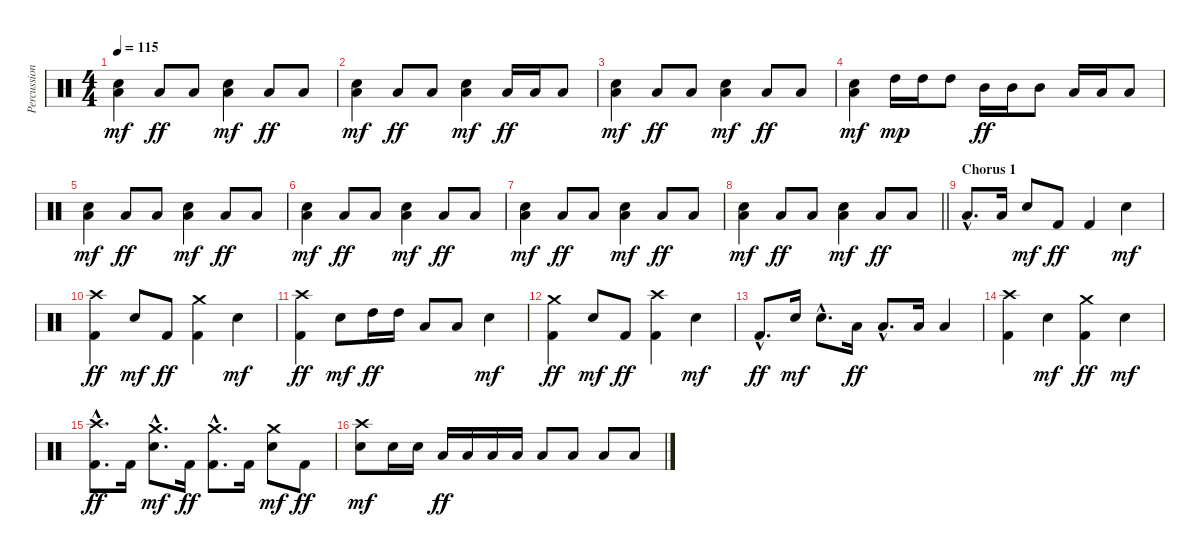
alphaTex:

\track ("Percussion" "Percussion") {instrument percussion}
\staff {score}
\articulation defaults
\ts (4 4)
\tempo 115
\clef neutral
\ks c
("Low Floor Tom (hit)" "Snare (hit) 2").4{dy mf} "Low Floor Tom (hit)".8{dy ff} "Low Floor Tom (hit)".8 ("Low Floor Tom (hit)" "Snare (hit) 2").4{dy mf} "Low Floor Tom (hit)".8{dy ff} "Low Floor Tom (hit)".8 |
("Low Floor Tom (hit)" "Snare (hit) 2").4{dy mf} "Low Floor Tom (hit)".8{dy ff} "Low Floor Tom (hit)".8 ("Low Floor Tom (hit)" "Snare (hit) 2").4{dy mf} "Low Tom (hit)".16{dy ff} "Low Tom (hit)".16 "Low Tom (hit)".8 |
("Low Floor Tom (hit)" "Snare (hit) 2").4{dy mf} "Low Floor Tom (hit)".8{dy ff} "Low Floor Tom (hit)".8 ("Low Floor Tom (hit)" "Snare (hit) 2").4{dy mf} "Low Floor Tom (hit)".8{dy ff} "Low Floor Tom (hit)".8 |
("Low Floor Tom (hit)" "Snare (hit) 2").4{dy mf} "High Tom (hit)".16{dy mp} "High Tom (hit)".16 "High Tom (hit)".8 "Mid Tom (hit)".16{dy ff} "Mid Tom (hit)".16 "Mid Tom (hit)".8 "Low Tom (hit)".16 "Low Tom (hit)".16 "Low Tom (hit)".8 |
("Low Floor Tom (hit)" "Snare (hit) 2").4{dy mf} "Low Floor Tom (hit)".8{dy ff} "Low Floor Tom (hit)".8 ("Low Floor Tom (hit)" "Snare (hit) 2").4{dy mf} "Low Floor Tom (hit)".8{dy ff} "Low Floor Tom (hit)".8 |
("Low Floor Tom (hit)" "Snare (hit) 2").4{dy mf} "Low Floor Tom (hit)".8{dy ff} "Low Floor Tom (hit)".8 ("Low Floor Tom (hit)" "Snare (hit) 2").4{dy mf} "Low Floor Tom (hit)".8{dy ff} "Low Floor Tom (hit)".8 |
("Low Floor Tom (hit)" "Snare (hit) 2").4{dy mf} "Low Floor Tom (hit)".8{dy ff} "Low Floor Tom (hit)".8 ("Low Floor Tom (hit)" "Snare (hit) 2").4{dy mf} "Low Floor Tom (hit)".8{dy ff} "Low Floor Tom (hit)".8 |
\barLineRight lightlight
("Low Floor Tom (hit)" "Snare (hit) 2").4{dy mf} "Low Floor Tom (hit)".8{dy ff} "Low Floor Tom (hit)".8 ("Low Floor Tom (hit)" "Snare (hit) 2").4{dy mf} "Low Floor Tom (hit)".8{dy ff} "Low Floor Tom (hit)".8 |
\section ("" "Chorus 1")
"Low Floor Tom (hit)"{hac}.8{d} "Low Floor Tom (hit)".16 "Snare (hit) 2".8{dy mf} "Kick (hit) 2".8{dy ff} "Kick (hit) 2".4 "Snare (hit) 2".4{dy mf} |
("Crash high (hit)" "Kick (hit) 2").4{dy ff} "Snare (hit) 2".8{dy mf} "Kick (hit) 2".8{dy ff} ("Crash medium (hit)" "Kick (hit) 2").4 "Snare (hit) 2".4{dy mf} |
("Crash high (hit)" "Kick (hit) 2").4{dy ff} "Snare (hit) 2".8{dy mf} "High Tom (hit)".16{dy ff} "High Tom (hit)".16 "Low Floor Tom (hit)".8 "Low Floor Tom (hit)".8 "Snare (hit) 2".4{dy mf} |
("Crash medium (hit)" "Kick (hit) 2").4{dy ff} "Snare (hit) 2".8{dy mf} "Kick (hit) 2".8{dy ff} ("Crash high (hit)" "Kick (hit) 2").4 "Snare (hit) 2".4{dy mf} |
"Kick (hit) 2"{hac}.8{d dy ff} "Snare (hit) 2".16{dy mf} "Snare (hit) 2"{hac}.8{d} "Low Tom (hit)".16{dy ff} "Low Tom (hit)"{hac}.8{d} "Low Floor Tom (hit)".16 "Low Floor Tom (hit)".4 |
("Crash high (hit)" "Kick (hit) 2").4 "Snare (hit) 2".4{dy mf} ("Crash medium (hit)" "Kick (hit) 2").4{dy ff} "Snare (hit) 2".4{dy mf} |
("Crash high (hit)"{hac} "Kick (hit) 2"{hac}).8{d dy ff} "Kick (hit) 2".16 ("Crash medium (hit)"{hac} "Snare (hit) 2"{hac}).8{d dy mf} "Kick (hit) 2".16{dy ff} ("Crash medium (hit)"{hac} "Kick (hit) 2"{hac}).8{d} "Kick (hit) 2".16 ("Crash medium (hit)" "Snare (hit) 2").8{dy mf} "Kick (hit) 2".8{dy ff} |
("Crash high (hit)" "Snare (hit) 2").8{dy mf} "Snare (hit) 2".16 "Snare (hit) 2".16 "Low Tom (hit)".16{dy ff} "Low Tom (hit)".16 "Low Tom (hit)".16 "Low Tom (hit)".16 "Low Floor Tom (hit)".8 "Low Floor Tom (hit)".8 "Low Floor Tom (hit)".8 "Low Floor Tom (hit)".8
